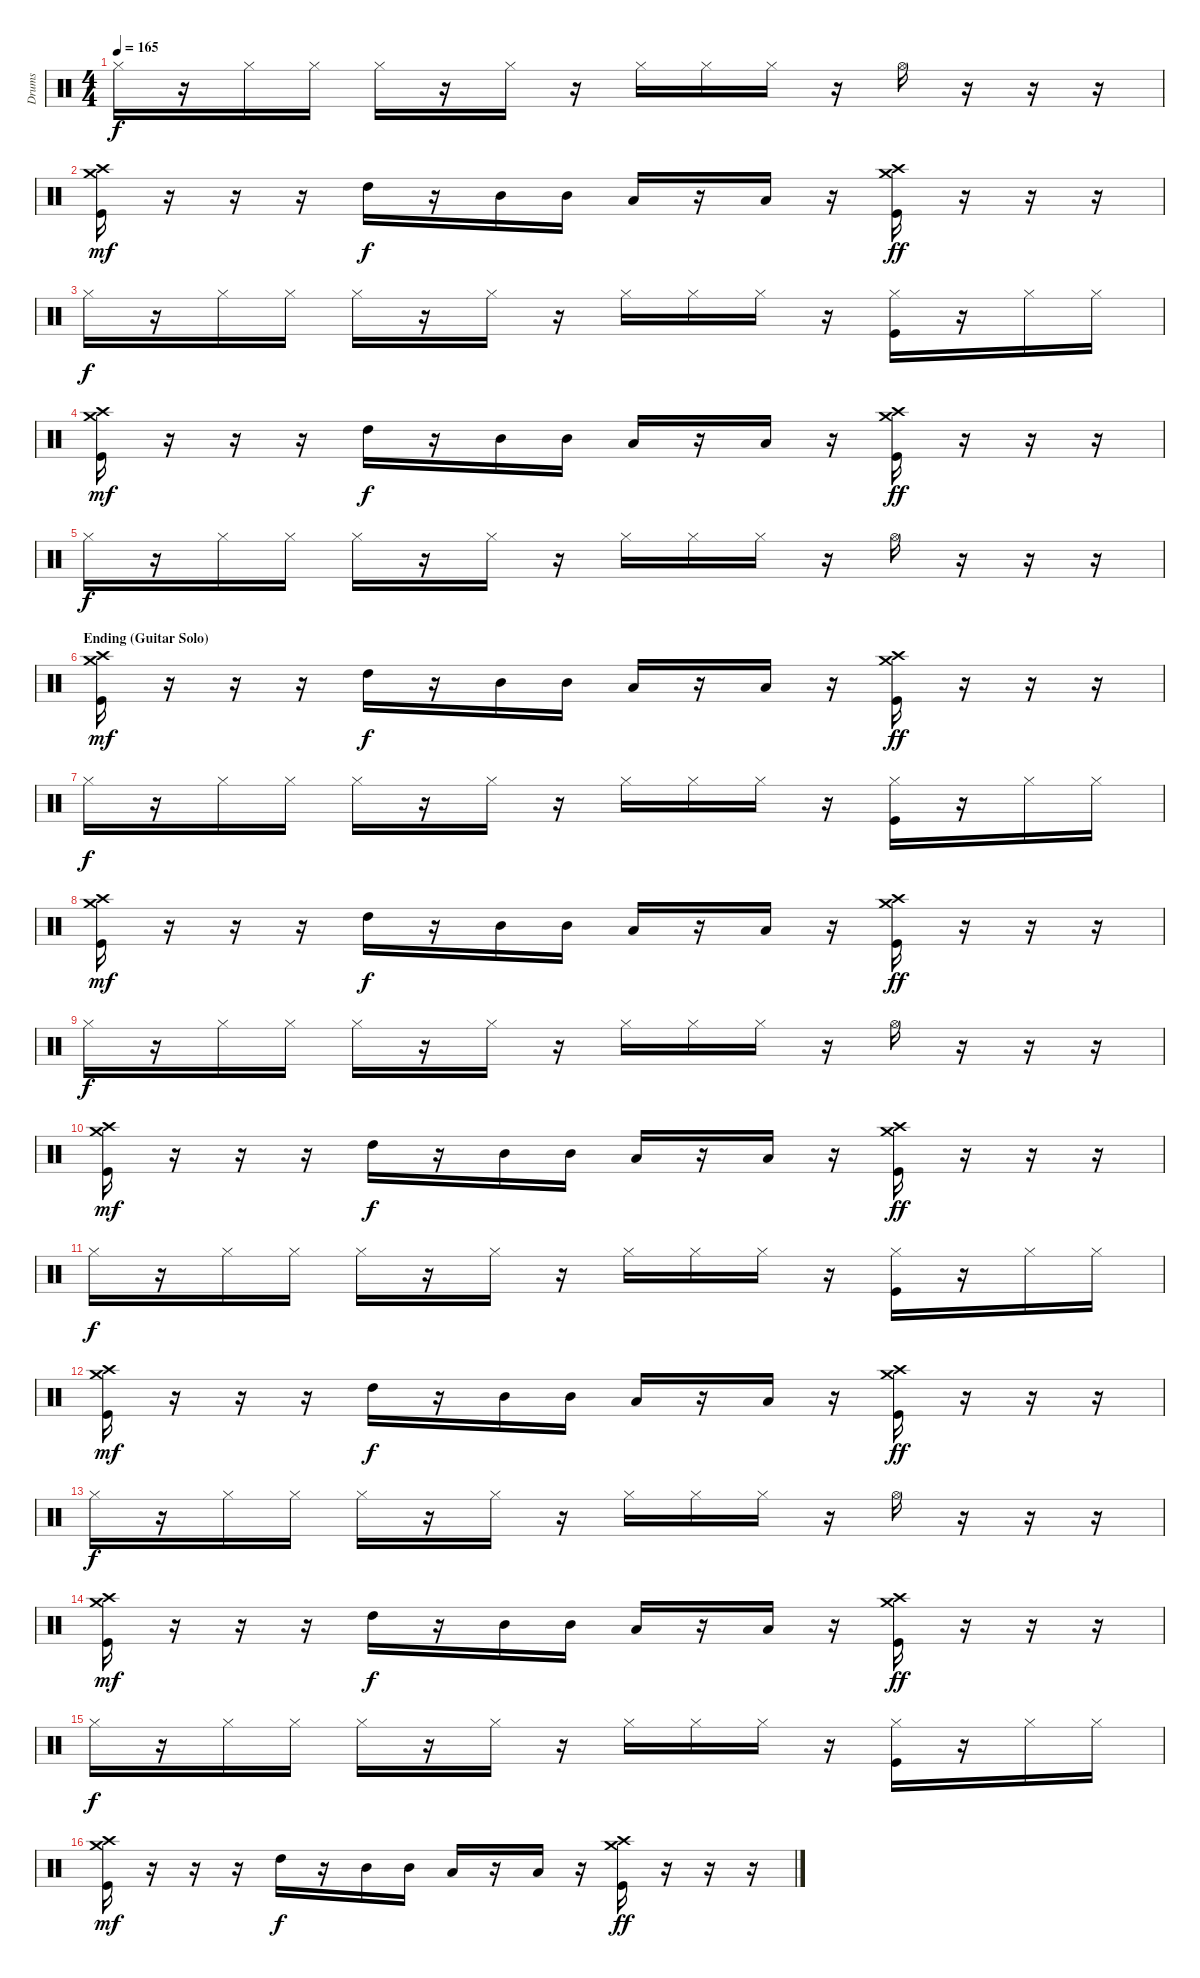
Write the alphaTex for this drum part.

\track ("Drums" "Drums") {instrument percussion}
\staff {score}
\articulation defaults
\ts (4 4)
\tempo 165
\clef neutral
\ks c "Hi-Hat (closed)".16{dy f}
r.16 "Hi-Hat (closed)".16 "Hi-Hat (closed)".16 "Hi-Hat (closed)".16 r.16 "Hi-Hat (closed)".16 r.16 "Hi-Hat (closed)".16 "Hi-Hat (closed)".16 "Hi-Hat (closed)".16 r.16 "Hi-Hat (open)".16 r.16 r.16 r.16 |
("Crash high (hit)" "Crash medium (hit)" "Kick (hit)").16{dy mf} r.16 r.16 r.16 "High Tom (hit)".16{dy f} r.16 "Mid Tom (hit)".16 "Mid Tom (hit)".16 "Low Tom (hit)".16 r.16 "Low Tom (hit)".16 r.16 ("Crash high (hit)" "Crash medium (hit)" "Kick (hit)").16{dy ff} r.16 r.16 r.16 |
"Hi-Hat (closed)".16{dy f} r.16 "Hi-Hat (closed)".16 "Hi-Hat (closed)".16 "Hi-Hat (closed)".16 r.16 "Hi-Hat (closed)".16 r.16 "Hi-Hat (closed)".16 "Hi-Hat (closed)".16 "Hi-Hat (closed)".16 r.16 ("Hi-Hat (closed)" "Kick (hit)").16 r.16 "Hi-Hat (closed)".16 "Hi-Hat (closed)".16 |
("Crash high (hit)" "Crash medium (hit)" "Kick (hit)").16{dy mf} r.16 r.16 r.16 "High Tom (hit)".16{dy f} r.16 "Mid Tom (hit)".16 "Mid Tom (hit)".16 "Low Tom (hit)".16 r.16 "Low Tom (hit)".16 r.16 ("Crash high (hit)" "Crash medium (hit)" "Kick (hit)").16{dy ff} r.16 r.16 r.16 |
"Hi-Hat (closed)".16{dy f} r.16 "Hi-Hat (closed)".16 "Hi-Hat (closed)".16 "Hi-Hat (closed)".16 r.16 "Hi-Hat (closed)".16 r.16 "Hi-Hat (closed)".16 "Hi-Hat (closed)".16 "Hi-Hat (closed)".16 r.16 "Hi-Hat (open)".16 r.16 r.16 r.16 |
\section ("" "Ending (Guitar Solo)")
("Crash high (hit)" "Crash medium (hit)" "Kick (hit)").16{dy mf} r.16 r.16 r.16 "High Tom (hit)".16{dy f} r.16 "Mid Tom (hit)".16 "Mid Tom (hit)".16 "Low Tom (hit)".16 r.16 "Low Tom (hit)".16 r.16 ("Crash high (hit)" "Crash medium (hit)" "Kick (hit)").16{dy ff} r.16 r.16 r.16 |
"Hi-Hat (closed)".16{dy f} r.16 "Hi-Hat (closed)".16 "Hi-Hat (closed)".16 "Hi-Hat (closed)".16 r.16 "Hi-Hat (closed)".16 r.16 "Hi-Hat (closed)".16 "Hi-Hat (closed)".16 "Hi-Hat (closed)".16 r.16 ("Hi-Hat (closed)" "Kick (hit)").16 r.16 "Hi-Hat (closed)".16 "Hi-Hat (closed)".16 |
("Crash high (hit)" "Crash medium (hit)" "Kick (hit)").16{dy mf} r.16 r.16 r.16 "High Tom (hit)".16{dy f} r.16 "Mid Tom (hit)".16 "Mid Tom (hit)".16 "Low Tom (hit)".16 r.16 "Low Tom (hit)".16 r.16 ("Crash high (hit)" "Crash medium (hit)" "Kick (hit)").16{dy ff} r.16 r.16 r.16 |
"Hi-Hat (closed)".16{dy f} r.16 "Hi-Hat (closed)".16 "Hi-Hat (closed)".16 "Hi-Hat (closed)".16 r.16 "Hi-Hat (closed)".16 r.16 "Hi-Hat (closed)".16 "Hi-Hat (closed)".16 "Hi-Hat (closed)".16 r.16 "Hi-Hat (open)".16 r.16 r.16 r.16 |
("Crash high (hit)" "Crash medium (hit)" "Kick (hit)").16{dy mf} r.16 r.16 r.16 "High Tom (hit)".16{dy f} r.16 "Mid Tom (hit)".16 "Mid Tom (hit)".16 "Low Tom (hit)".16 r.16 "Low Tom (hit)".16 r.16 ("Crash high (hit)" "Crash medium (hit)" "Kick (hit)").16{dy ff} r.16 r.16 r.16 |
"Hi-Hat (closed)".16{dy f} r.16 "Hi-Hat (closed)".16 "Hi-Hat (closed)".16 "Hi-Hat (closed)".16 r.16 "Hi-Hat (closed)".16 r.16 "Hi-Hat (closed)".16 "Hi-Hat (closed)".16 "Hi-Hat (closed)".16 r.16 ("Hi-Hat (closed)" "Kick (hit)").16 r.16 "Hi-Hat (closed)".16 "Hi-Hat (closed)".16 |
("Crash high (hit)" "Crash medium (hit)" "Kick (hit)").16{dy mf} r.16 r.16 r.16 "High Tom (hit)".16{dy f} r.16 "Mid Tom (hit)".16 "Mid Tom (hit)".16 "Low Tom (hit)".16 r.16 "Low Tom (hit)".16 r.16 ("Crash high (hit)" "Crash medium (hit)" "Kick (hit)").16{dy ff} r.16 r.16 r.16 |
"Hi-Hat (closed)".16{dy f} r.16 "Hi-Hat (closed)".16 "Hi-Hat (closed)".16 "Hi-Hat (closed)".16 r.16 "Hi-Hat (closed)".16 r.16 "Hi-Hat (closed)".16 "Hi-Hat (closed)".16 "Hi-Hat (closed)".16 r.16 "Hi-Hat (open)".16 r.16 r.16 r.16 |
("Crash high (hit)" "Crash medium (hit)" "Kick (hit)").16{dy mf} r.16 r.16 r.16 "High Tom (hit)".16{dy f} r.16 "Mid Tom (hit)".16 "Mid Tom (hit)".16 "Low Tom (hit)".16 r.16 "Low Tom (hit)".16 r.16 ("Crash high (hit)" "Crash medium (hit)" "Kick (hit)").16{dy ff} r.16 r.16 r.16 |
"Hi-Hat (closed)".16{dy f} r.16 "Hi-Hat (closed)".16 "Hi-Hat (closed)".16 "Hi-Hat (closed)".16 r.16 "Hi-Hat (closed)".16 r.16 "Hi-Hat (closed)".16 "Hi-Hat (closed)".16 "Hi-Hat (closed)".16 r.16 ("Hi-Hat (closed)" "Kick (hit)").16 r.16 "Hi-Hat (closed)".16 "Hi-Hat (closed)".16 |
("Crash high (hit)" "Crash medium (hit)" "Kick (hit)").16{dy mf} r.16 r.16 r.16 "High Tom (hit)".16{dy f} r.16 "Mid Tom (hit)".16 "Mid Tom (hit)".16 "Low Tom (hit)".16 r.16 "Low Tom (hit)".16 r.16 ("Crash high (hit)" "Crash medium (hit)" "Kick (hit)").16{dy ff} r.16 r.16 r.16
